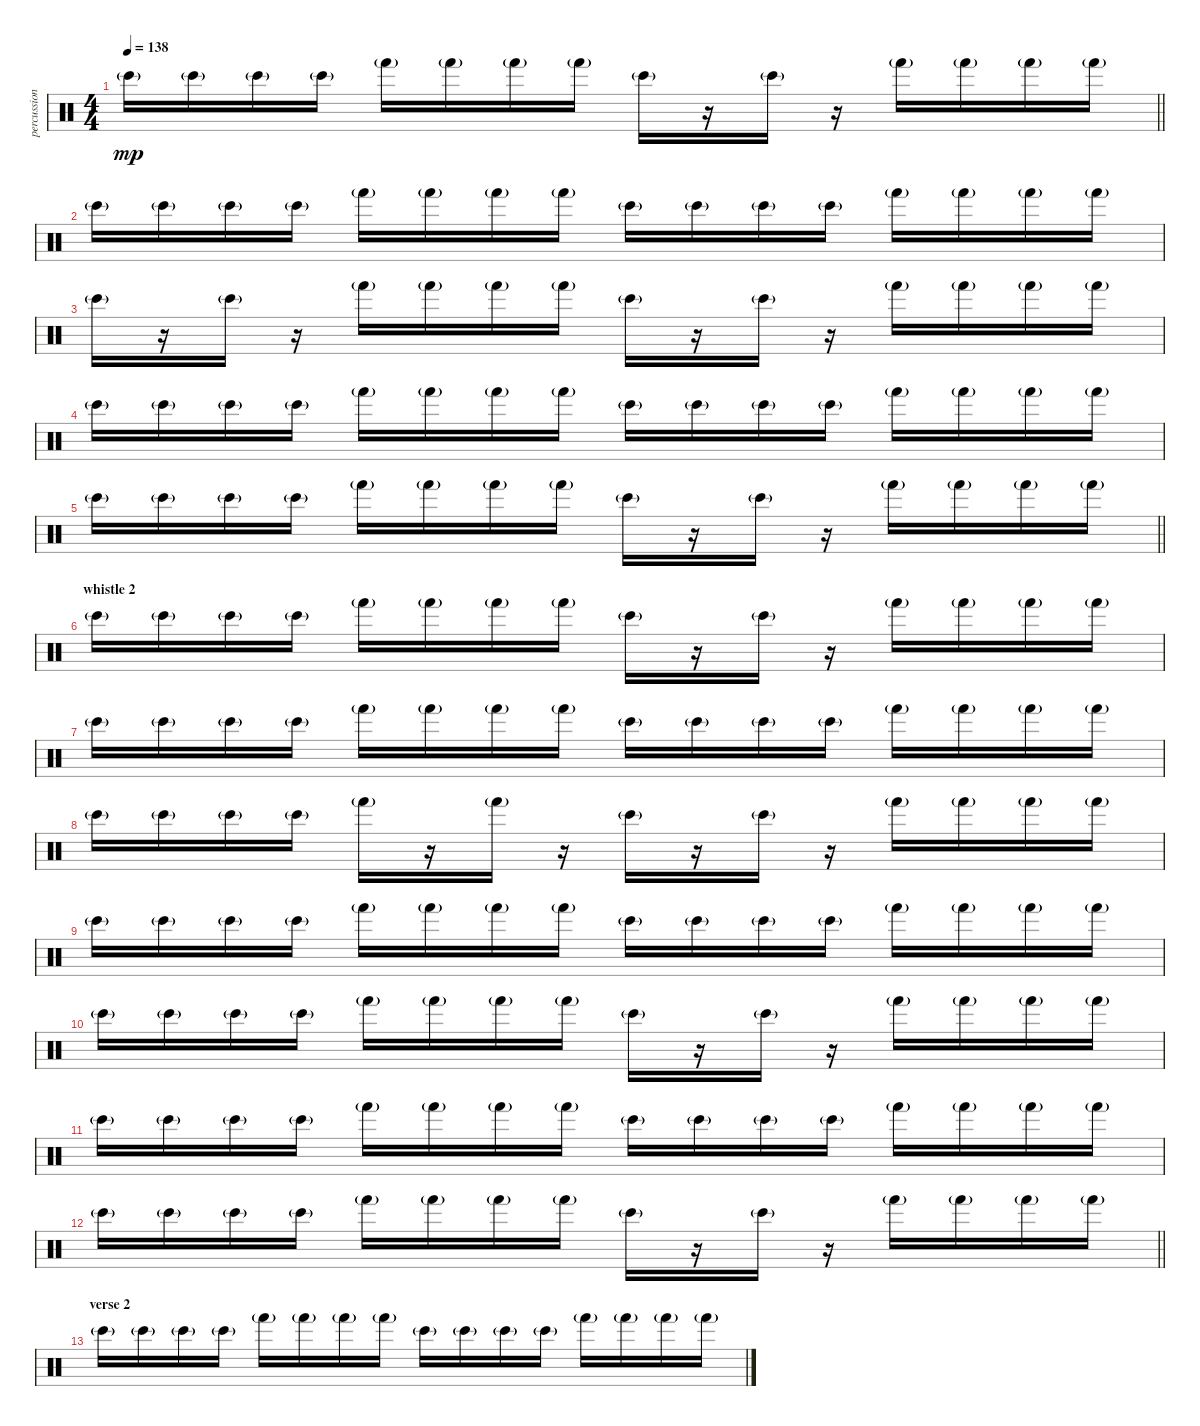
\track ("percussion" "percussion") {instrument percussion}
\staff {score}
\articulation defaults
\ts (4 4)
\tempo 138
\clef neutral
\barLineRight lightlight
\ks c "Bongo High (hit)"{g}.16{dy mp} "Bongo High (hit)"{g}.16 "Bongo High (hit)"{g}.16 "Bongo High (hit)"{g}.16 "Hand (hit)"{g}.16 "Hand (hit)"{g}.16 "Hand (hit)"{g}.16 "Hand (hit)"{g}.16 "Bongo High (hit)"{g}.16
r.16 "Bongo High (hit)"{g}.16 r.16 "Hand (hit)"{g}.16 "Hand (hit)"{g}.16 "Hand (hit)"{g}.16 "Hand (hit)"{g}.16 |
"Bongo High (hit)"{g}.16 "Bongo High (hit)"{g}.16 "Bongo High (hit)"{g}.16 "Bongo High (hit)"{g}.16 "Hand (hit)"{g}.16 "Hand (hit)"{g}.16 "Hand (hit)"{g}.16 "Hand (hit)"{g}.16 "Bongo High (hit)"{g}.16 "Bongo High (hit)"{g}.16 "Bongo High (hit)"{g}.16 "Bongo High (hit)"{g}.16 "Hand (hit)"{g}.16 "Hand (hit)"{g}.16 "Hand (hit)"{g}.16 "Hand (hit)"{g}.16 |
"Bongo High (hit)"{g}.16 r.16 "Bongo High (hit)"{g}.16 r.16 "Hand (hit)"{g}.16 "Hand (hit)"{g}.16 "Hand (hit)"{g}.16 "Hand (hit)"{g}.16 "Bongo High (hit)"{g}.16 r.16 "Bongo High (hit)"{g}.16 r.16 "Hand (hit)"{g}.16 "Hand (hit)"{g}.16 "Hand (hit)"{g}.16 "Hand (hit)"{g}.16 |
"Bongo High (hit)"{g}.16 "Bongo High (hit)"{g}.16 "Bongo High (hit)"{g}.16 "Bongo High (hit)"{g}.16 "Hand (hit)"{g}.16 "Hand (hit)"{g}.16 "Hand (hit)"{g}.16 "Hand (hit)"{g}.16 "Bongo High (hit)"{g}.16 "Bongo High (hit)"{g}.16 "Bongo High (hit)"{g}.16 "Bongo High (hit)"{g}.16 "Hand (hit)"{g}.16 "Hand (hit)"{g}.16 "Hand (hit)"{g}.16 "Hand (hit)"{g}.16 |
\barLineRight lightlight "Bongo High (hit)"{g}.16 "Bongo High (hit)"{g}.16 "Bongo High (hit)"{g}.16 "Bongo High (hit)"{g}.16 "Hand (hit)"{g}.16 "Hand (hit)"{g}.16 "Hand (hit)"{g}.16 "Hand (hit)"{g}.16 "Bongo High (hit)"{g}.16
r.16 "Bongo High (hit)"{g}.16 r.16 "Hand (hit)"{g}.16 "Hand (hit)"{g}.16 "Hand (hit)"{g}.16 "Hand (hit)"{g}.16 |
\section ("" "whistle 2")
"Bongo High (hit)"{g}.16 "Bongo High (hit)"{g}.16 "Bongo High (hit)"{g}.16 "Bongo High (hit)"{g}.16 "Hand (hit)"{g}.16 "Hand (hit)"{g}.16 "Hand (hit)"{g}.16 "Hand (hit)"{g}.16 "Bongo High (hit)"{g}.16 r.16 "Bongo High (hit)"{g}.16 r.16 "Hand (hit)"{g}.16 "Hand (hit)"{g}.16 "Hand (hit)"{g}.16 "Hand (hit)"{g}.16 |
"Bongo High (hit)"{g}.16 "Bongo High (hit)"{g}.16 "Bongo High (hit)"{g}.16 "Bongo High (hit)"{g}.16 "Hand (hit)"{g}.16 "Hand (hit)"{g}.16 "Hand (hit)"{g}.16 "Hand (hit)"{g}.16 "Bongo High (hit)"{g}.16 "Bongo High (hit)"{g}.16 "Bongo High (hit)"{g}.16 "Bongo High (hit)"{g}.16 "Hand (hit)"{g}.16 "Hand (hit)"{g}.16 "Hand (hit)"{g}.16 "Hand (hit)"{g}.16 |
"Bongo High (hit)"{g}.16 "Bongo High (hit)"{g}.16 "Bongo High (hit)"{g}.16 "Bongo High (hit)"{g}.16 "Hand (hit)"{g}.16 r.16 "Hand (hit)"{g}.16 r.16 "Bongo High (hit)"{g}.16 r.16 "Bongo High (hit)"{g}.16 r.16 "Hand (hit)"{g}.16 "Hand (hit)"{g}.16 "Hand (hit)"{g}.16 "Hand (hit)"{g}.16 |
"Bongo High (hit)"{g}.16 "Bongo High (hit)"{g}.16 "Bongo High (hit)"{g}.16 "Bongo High (hit)"{g}.16 "Hand (hit)"{g}.16 "Hand (hit)"{g}.16 "Hand (hit)"{g}.16 "Hand (hit)"{g}.16 "Bongo High (hit)"{g}.16 "Bongo High (hit)"{g}.16 "Bongo High (hit)"{g}.16 "Bongo High (hit)"{g}.16 "Hand (hit)"{g}.16 "Hand (hit)"{g}.16 "Hand (hit)"{g}.16 "Hand (hit)"{g}.16 |
"Bongo High (hit)"{g}.16 "Bongo High (hit)"{g}.16 "Bongo High (hit)"{g}.16 "Bongo High (hit)"{g}.16 "Hand (hit)"{g}.16 "Hand (hit)"{g}.16 "Hand (hit)"{g}.16 "Hand (hit)"{g}.16 "Bongo High (hit)"{g}.16 r.16 "Bongo High (hit)"{g}.16 r.16 "Hand (hit)"{g}.16 "Hand (hit)"{g}.16 "Hand (hit)"{g}.16 "Hand (hit)"{g}.16 |
"Bongo High (hit)"{g}.16 "Bongo High (hit)"{g}.16 "Bongo High (hit)"{g}.16 "Bongo High (hit)"{g}.16 "Hand (hit)"{g}.16 "Hand (hit)"{g}.16 "Hand (hit)"{g}.16 "Hand (hit)"{g}.16 "Bongo High (hit)"{g}.16 "Bongo High (hit)"{g}.16 "Bongo High (hit)"{g}.16 "Bongo High (hit)"{g}.16 "Hand (hit)"{g}.16 "Hand (hit)"{g}.16 "Hand (hit)"{g}.16 "Hand (hit)"{g}.16 |
\barLineRight lightlight "Bongo High (hit)"{g}.16 "Bongo High (hit)"{g}.16 "Bongo High (hit)"{g}.16 "Bongo High (hit)"{g}.16 "Hand (hit)"{g}.16 "Hand (hit)"{g}.16 "Hand (hit)"{g}.16 "Hand (hit)"{g}.16 "Bongo High (hit)"{g}.16
r.16 "Bongo High (hit)"{g}.16 r.16 "Hand (hit)"{g}.16 "Hand (hit)"{g}.16 "Hand (hit)"{g}.16 "Hand (hit)"{g}.16 |
\section ("" "verse 2")
"Bongo High (hit)"{g}.16 "Bongo High (hit)"{g}.16 "Bongo High (hit)"{g}.16 "Bongo High (hit)"{g}.16 "Hand (hit)"{g}.16 "Hand (hit)"{g}.16 "Hand (hit)"{g}.16 "Hand (hit)"{g}.16 "Bongo High (hit)"{g}.16 "Bongo High (hit)"{g}.16 "Bongo High (hit)"{g}.16 "Bongo High (hit)"{g}.16 "Hand (hit)"{g}.16 "Hand (hit)"{g}.16 "Hand (hit)"{g}.16 "Hand (hit)"{g}.16
